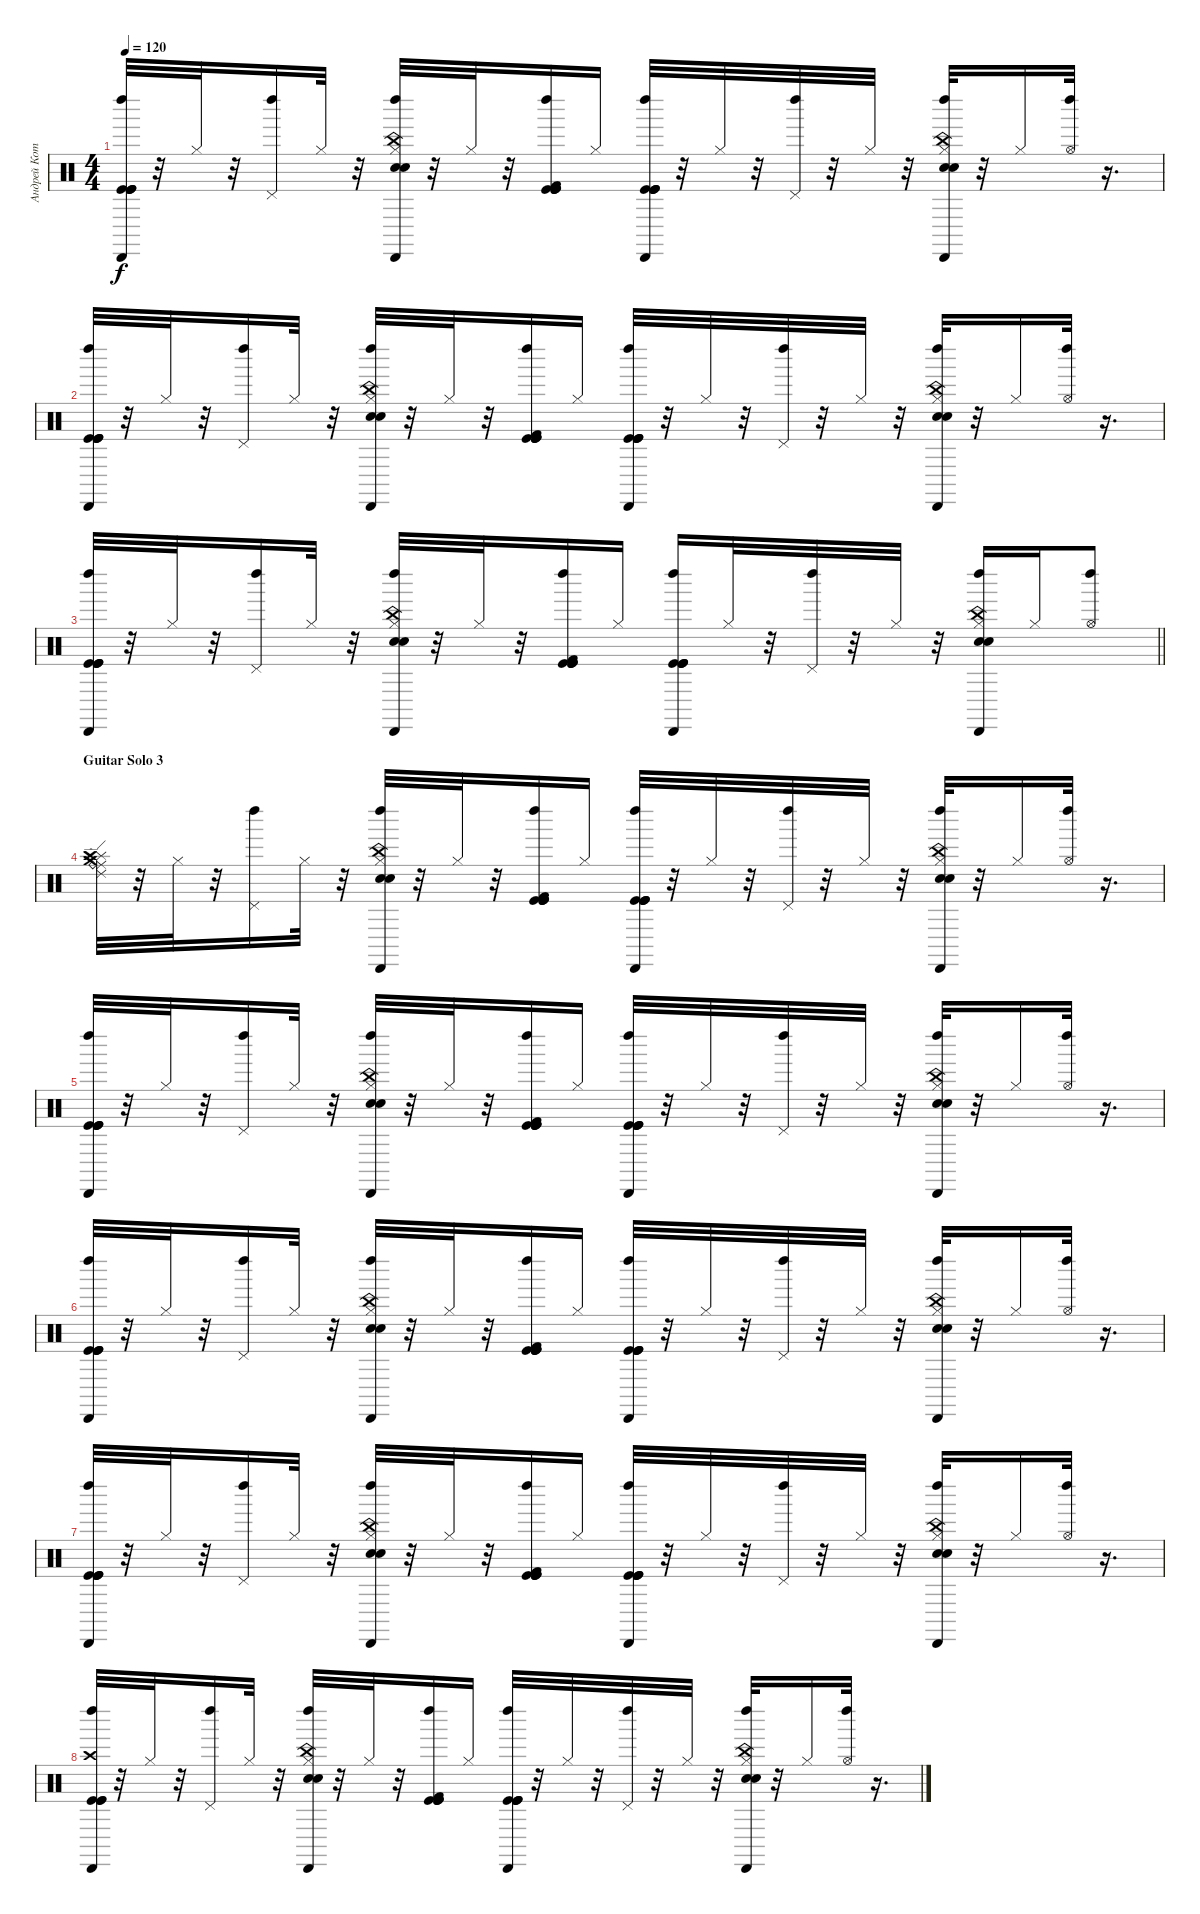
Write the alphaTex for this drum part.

\track ("Андрей Котов " "Андрей Кот") {instrument percussion}
\staff {score}
\articulation defaults
\ts (4 4)
\tempo 120
\clef neutral
\ks c
("Cabasa (hit)" "Left Maraca (hit)" "Kick (hit)" "Kick (hit)" "Kick (hit)" "Kick (hit)").32{dy f} r.32 "Hi-Hat (closed)".32 r.32 ("Left Maraca (hit)" "Pedal Hi-Hat (hit)").16 "Hi-Hat (closed)".32 r.32 ("Cabasa (hit)" "Left Maraca (hit)" "China (hit)" "Electric Snare (hit)" "Hand Clap (hit)" "Hi-Hat (closed)").32 r.32 "Hi-Hat (closed)".32 r.32 ("Left Maraca (hit)" "Kick (hit)" "Kick (hit)" "Kick (hit)" "Kick (hit)" "Kick (hit) 2").16 "Hi-Hat (closed)".16 ("Cabasa (hit)" "Left Maraca (hit)" "Kick (hit)" "Kick (hit)" "Kick (hit)" "Kick (hit)").32 r.32 "Hi-Hat (closed)".32 r.32 ("Left Maraca (hit)" "Pedal Hi-Hat (hit)").32 r.32 "Hi-Hat (closed)".32 r.32 ("Cabasa (hit)" "Left Maraca (hit)" "China (hit)" "Electric Snare (hit)" "Hand Clap (hit)" "Hi-Hat (closed)").32 r.32 "Hi-Hat (closed)".16 ("Left Maraca (hit)" "Hi-Hat (open)").32 r.16{d} |
("Cabasa (hit)" "Left Maraca (hit)" "Kick (hit)" "Kick (hit)" "Kick (hit)" "Kick (hit)").32 r.32 "Hi-Hat (closed)".32 r.32 ("Left Maraca (hit)" "Pedal Hi-Hat (hit)").16 "Hi-Hat (closed)".32 r.32 ("Cabasa (hit)" "Left Maraca (hit)" "China (hit)" "Electric Snare (hit)" "Hand Clap (hit)" "Hi-Hat (closed)").32 r.32 "Hi-Hat (closed)".32 r.32 ("Left Maraca (hit)" "Kick (hit)" "Kick (hit)" "Kick (hit)" "Kick (hit)" "Kick (hit) 2").16 "Hi-Hat (closed)".16 ("Cabasa (hit)" "Left Maraca (hit)" "Kick (hit)" "Kick (hit)" "Kick (hit)" "Kick (hit)").32 r.32 "Hi-Hat (closed)".32 r.32 ("Left Maraca (hit)" "Pedal Hi-Hat (hit)").32 r.32 "Hi-Hat (closed)".32 r.32 ("Cabasa (hit)" "Left Maraca (hit)" "China (hit)" "Electric Snare (hit)" "Hand Clap (hit)" "Hi-Hat (closed)").32 r.32 "Hi-Hat (closed)".16 ("Left Maraca (hit)" "Hi-Hat (open)").32 r.16{d} |
\barLineRight lightlight
("Cabasa (hit)" "Left Maraca (hit)" "Kick (hit)" "Kick (hit)" "Kick (hit)" "Kick (hit)").32 r.32 "Hi-Hat (closed)".32 r.32 ("Left Maraca (hit)" "Pedal Hi-Hat (hit)").16 "Hi-Hat (closed)".32 r.32 ("Cabasa (hit)" "Left Maraca (hit)" "China (hit)" "Electric Snare (hit)" "Hand Clap (hit)" "Hi-Hat (closed)").32 r.32 "Hi-Hat (closed)".32 r.32 ("Left Maraca (hit)" "Kick (hit)" "Kick (hit)" "Kick (hit)" "Kick (hit)" "Kick (hit) 2").16 "Hi-Hat (closed)".16 ("Cabasa (hit)" "Left Maraca (hit)" "Kick (hit)" "Kick (hit)" "Kick (hit)" "Kick (hit)").16 "Hi-Hat (closed)".32 r.32 ("Left Maraca (hit)" "Pedal Hi-Hat (hit)").32 r.32 "Hi-Hat (closed)".32 r.32 ("Cabasa (hit)" "Left Maraca (hit)" "China (hit)" "Electric Snare (hit)" "Hand Clap (hit)" "Hi-Hat (closed)").16 "Hi-Hat (closed)".16 ("Left Maraca (hit)" "Hi-Hat (open)").8 |
\section ("" "Guitar Solo 3 ")
("Ride (middle)" "Ride (bell)" "Ride (edge) 2" "Splash (hit)" "Crash medium (hit)" "Crash high (hit)").32 r.32 "Hi-Hat (closed)".32 r.32 ("Left Maraca (hit)" "Pedal Hi-Hat (hit)").16 "Hi-Hat (closed)".32 r.32 ("Cabasa (hit)" "Left Maraca (hit)" "China (hit)" "Electric Snare (hit)" "Hand Clap (hit)" "Hi-Hat (closed)").32 r.32 "Hi-Hat (closed)".32 r.32 ("Left Maraca (hit)" "Kick (hit)" "Kick (hit)" "Kick (hit)" "Kick (hit)" "Kick (hit) 2").16 "Hi-Hat (closed)".16 ("Cabasa (hit)" "Left Maraca (hit)" "Kick (hit)" "Kick (hit)" "Kick (hit)" "Kick (hit)").32 r.32 "Hi-Hat (closed)".32 r.32 ("Left Maraca (hit)" "Pedal Hi-Hat (hit)").32 r.32 "Hi-Hat (closed)".32 r.32 ("Cabasa (hit)" "Left Maraca (hit)" "China (hit)" "Electric Snare (hit)" "Hand Clap (hit)" "Hi-Hat (closed)").32 r.32 "Hi-Hat (closed)".16 ("Left Maraca (hit)" "Hi-Hat (open)").32 r.16{d} |
("Cabasa (hit)" "Left Maraca (hit)" "Kick (hit)" "Kick (hit)" "Kick (hit)" "Kick (hit)").32 r.32 "Hi-Hat (closed)".32 r.32 ("Left Maraca (hit)" "Pedal Hi-Hat (hit)").16 "Hi-Hat (closed)".32 r.32 ("Cabasa (hit)" "Left Maraca (hit)" "China (hit)" "Electric Snare (hit)" "Hand Clap (hit)" "Hi-Hat (closed)").32 r.32 "Hi-Hat (closed)".32 r.32 ("Left Maraca (hit)" "Kick (hit)" "Kick (hit)" "Kick (hit)" "Kick (hit)" "Kick (hit) 2").16 "Hi-Hat (closed)".16 ("Cabasa (hit)" "Left Maraca (hit)" "Kick (hit)" "Kick (hit)" "Kick (hit)" "Kick (hit)").32 r.32 "Hi-Hat (closed)".32 r.32 ("Left Maraca (hit)" "Pedal Hi-Hat (hit)").32 r.32 "Hi-Hat (closed)".32 r.32 ("Cabasa (hit)" "Left Maraca (hit)" "China (hit)" "Electric Snare (hit)" "Hand Clap (hit)" "Hi-Hat (closed)").32 r.32 "Hi-Hat (closed)".16 ("Left Maraca (hit)" "Hi-Hat (open)").32 r.16{d} |
("Cabasa (hit)" "Left Maraca (hit)" "Kick (hit)" "Kick (hit)" "Kick (hit)" "Kick (hit)").32 r.32 "Hi-Hat (closed)".32 r.32 ("Left Maraca (hit)" "Pedal Hi-Hat (hit)").16 "Hi-Hat (closed)".32 r.32 ("Cabasa (hit)" "Left Maraca (hit)" "China (hit)" "Electric Snare (hit)" "Hand Clap (hit)" "Hi-Hat (closed)").32 r.32 "Hi-Hat (closed)".32 r.32 ("Left Maraca (hit)" "Kick (hit)" "Kick (hit)" "Kick (hit)" "Kick (hit)" "Kick (hit) 2").16 "Hi-Hat (closed)".16 ("Cabasa (hit)" "Left Maraca (hit)" "Kick (hit)" "Kick (hit)" "Kick (hit)" "Kick (hit)").32 r.32 "Hi-Hat (closed)".32 r.32 ("Left Maraca (hit)" "Pedal Hi-Hat (hit)").32 r.32 "Hi-Hat (closed)".32 r.32 ("Cabasa (hit)" "Left Maraca (hit)" "China (hit)" "Electric Snare (hit)" "Hand Clap (hit)" "Hi-Hat (closed)").32 r.32 "Hi-Hat (closed)".16 ("Left Maraca (hit)" "Hi-Hat (open)").32 r.16{d} |
("Cabasa (hit)" "Left Maraca (hit)" "Kick (hit)" "Kick (hit)" "Kick (hit)" "Kick (hit)").32 r.32 "Hi-Hat (closed)".32 r.32 ("Left Maraca (hit)" "Pedal Hi-Hat (hit)").16 "Hi-Hat (closed)".32 r.32 ("Cabasa (hit)" "Left Maraca (hit)" "China (hit)" "Electric Snare (hit)" "Hand Clap (hit)" "Hi-Hat (closed)").32 r.32 "Hi-Hat (closed)".32 r.32 ("Left Maraca (hit)" "Kick (hit)" "Kick (hit)" "Kick (hit)" "Kick (hit)" "Kick (hit) 2").16 "Hi-Hat (closed)".16 ("Cabasa (hit)" "Left Maraca (hit)" "Kick (hit)" "Kick (hit)" "Kick (hit)" "Kick (hit)").32 r.32 "Hi-Hat (closed)".32 r.32 ("Left Maraca (hit)" "Pedal Hi-Hat (hit)").32 r.32 "Hi-Hat (closed)".32 r.32 ("Cabasa (hit)" "Left Maraca (hit)" "China (hit)" "Electric Snare (hit)" "Hand Clap (hit)" "Hi-Hat (closed)").32 r.32 "Hi-Hat (closed)".16 ("Left Maraca (hit)" "Hi-Hat (open)").32 r.16{d} |
("Crash high (hit)" "Cabasa (hit)" "Left Maraca (hit)" "Kick (hit)" "Kick (hit)" "Kick (hit)").32 r.32 "Hi-Hat (closed)".32 r.32 ("Left Maraca (hit)" "Pedal Hi-Hat (hit)").16 "Hi-Hat (closed)".32 r.32 ("Cabasa (hit)" "Left Maraca (hit)" "China (hit)" "Electric Snare (hit)" "Hand Clap (hit)" "Hi-Hat (closed)").32 r.32 "Hi-Hat (closed)".32 r.32 ("Left Maraca (hit)" "Kick (hit)" "Kick (hit)" "Kick (hit)" "Kick (hit)" "Kick (hit) 2").16 "Hi-Hat (closed)".16 ("Cabasa (hit)" "Left Maraca (hit)" "Kick (hit)" "Kick (hit)" "Kick (hit)" "Kick (hit)").32 r.32 "Hi-Hat (closed)".32 r.32 ("Left Maraca (hit)" "Pedal Hi-Hat (hit)").32 r.32 "Hi-Hat (closed)".32 r.32 ("Cabasa (hit)" "Left Maraca (hit)" "China (hit)" "Electric Snare (hit)" "Hand Clap (hit)" "Hi-Hat (closed)").32 r.32 "Hi-Hat (closed)".16 ("Left Maraca (hit)" "Hi-Hat (open)").32 r.16{d}
